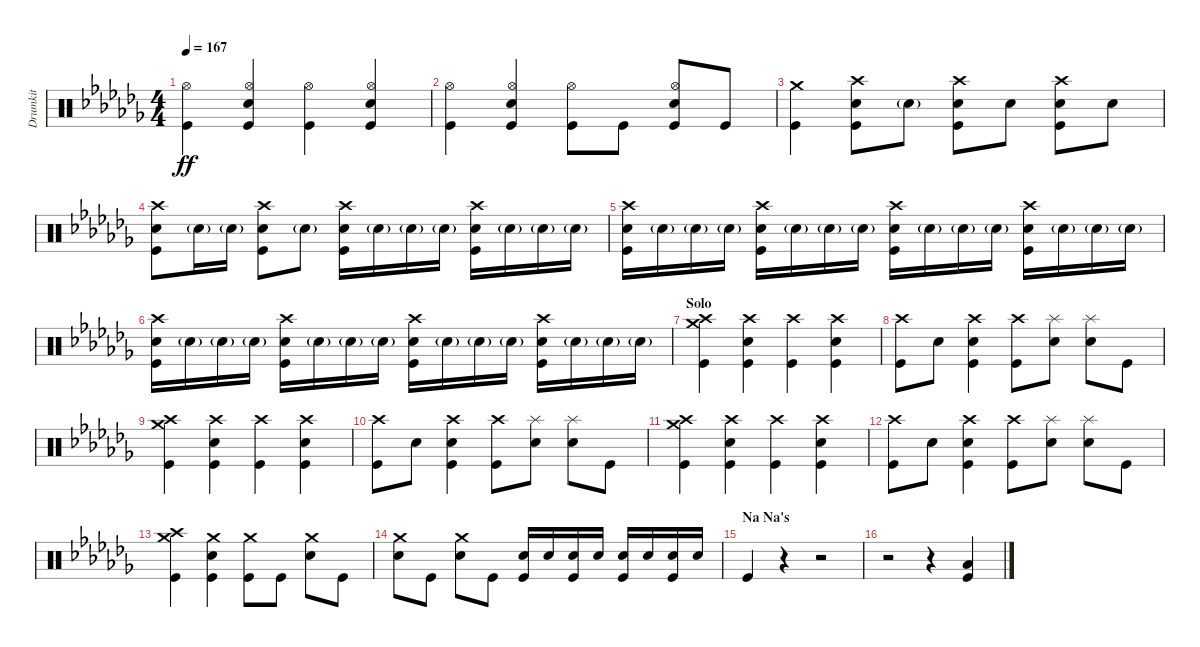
\track ("Drumkit" "Drumkit") {instrument percussion}
\staff {score}
\articulation defaults
\ts (4 4)
\tempo 167
\clef neutral
\ks abminor
("Kick (hit)" "Hi-Hat (open)").4{dy ff} ("Snare (hit) 2" "Hi-Hat (open)" "Kick (hit)").4 ("Kick (hit)" "Hi-Hat (open)").4 ("Snare (hit) 2" "Hi-Hat (open)" "Kick (hit)").4 |
("Kick (hit)" "Hi-Hat (open)").4 ("Snare (hit) 2" "Hi-Hat (open)" "Kick (hit)").4 ("Kick (hit)" "Hi-Hat (open)").8 "Kick (hit)".8 ("Snare (hit) 2" "Hi-Hat (open)" "Kick (hit)").8 "Kick (hit)".8 |
("Kick (hit)" "Crash medium (hit)").4{volume 12} ("Snare (hit) 2" "Kick (hit)" "Crash high (hit)").8 "Snare (hit) 2"{g}.8 ("Snare (hit) 2" "Kick (hit)" "Crash high (hit)").8 "Snare (hit) 2".8 ("Snare (hit) 2" "Kick (hit)" "Crash high (hit)").8 "Snare (hit) 2".8 |
("Snare (hit) 2" "Kick (hit)" "Crash high (hit)").8 "Snare (hit) 2"{g}.16 "Snare (hit) 2"{g}.16 ("Snare (hit) 2" "Kick (hit)" "Crash high (hit)").8 "Snare (hit) 2"{g}.8 ("Snare (hit) 2" "Kick (hit)" "Crash high (hit)").16 "Snare (hit) 2"{g}.16 "Snare (hit) 2"{g}.16 "Snare (hit) 2"{g}.16 ("Snare (hit) 2" "Kick (hit)" "Crash high (hit)").16 "Snare (hit) 2"{g}.16 "Snare (hit) 2"{g}.16 "Snare (hit) 2"{g}.16 |
("Snare (hit) 2" "Kick (hit)" "Crash high (hit)").16 "Snare (hit) 2"{g}.16 "Snare (hit) 2"{g}.16 "Snare (hit) 2"{g}.16 ("Snare (hit) 2" "Kick (hit)" "Crash high (hit)").16 "Snare (hit) 2"{g}.16 "Snare (hit) 2"{g}.16 "Snare (hit) 2"{g}.16 ("Snare (hit) 2" "Kick (hit)" "Crash high (hit)").16 "Snare (hit) 2"{g}.16 "Snare (hit) 2"{g}.16 "Snare (hit) 2"{g}.16 ("Snare (hit) 2" "Kick (hit)" "Crash high (hit)").16 "Snare (hit) 2"{g}.16 "Snare (hit) 2"{g}.16 "Snare (hit) 2"{g}.16 |
("Snare (hit) 2" "Kick (hit)" "Crash high (hit)").16 "Snare (hit) 2"{g}.16 "Snare (hit) 2"{g}.16 "Snare (hit) 2"{g}.16 ("Snare (hit) 2" "Kick (hit)" "Crash high (hit)").16 "Snare (hit) 2"{g}.16 "Snare (hit) 2"{g}.16 "Snare (hit) 2"{g}.16 ("Snare (hit) 2" "Kick (hit)" "Crash high (hit)").16 "Snare (hit) 2"{g}.16 "Snare (hit) 2"{g}.16 "Snare (hit) 2"{g}.16 ("Snare (hit) 2" "Kick (hit)" "Crash high (hit)").16 "Snare (hit) 2"{g}.16 "Snare (hit) 2"{g}.16 "Snare (hit) 2"{g}.16 |
\section ("" "Solo")
("Crash high (hit)" "Crash medium (hit)" "Kick (hit)").4{volume 16} ("Snare (hit) 2" "Kick (hit)" "Crash high (hit)").4 ("Kick (hit)" "Crash high (hit)").4 ("Snare (hit) 2" "Kick (hit)" "Crash high (hit)").4 |
("Kick (hit)" "Crash high (hit)").8 "Snare (hit) 2".8 ("Snare (hit) 2" "Kick (hit)" "Crash high (hit)").4 ("Kick (hit)" "Crash high (hit)").8 ("Snare (hit) 2" "Splash (hit)").8 ("Snare (hit) 2" "Splash (hit)").8 "Kick (hit)".8 |
("Crash high (hit)" "Crash medium (hit)" "Kick (hit)").4 ("Snare (hit) 2" "Kick (hit)" "Crash high (hit)").4 ("Kick (hit)" "Crash high (hit)").4 ("Snare (hit) 2" "Kick (hit)" "Crash high (hit)").4 |
("Kick (hit)" "Crash high (hit)").8 "Snare (hit) 2".8 ("Snare (hit) 2" "Kick (hit)" "Crash high (hit)").4 ("Kick (hit)" "Crash high (hit)").8 ("Snare (hit) 2" "Splash (hit)").8 ("Snare (hit) 2" "Splash (hit)").8 "Kick (hit)".8 |
("Crash high (hit)" "Crash medium (hit)" "Kick (hit)").4 ("Snare (hit) 2" "Kick (hit)" "Crash high (hit)").4 ("Kick (hit)" "Crash high (hit)").4 ("Snare (hit) 2" "Kick (hit)" "Crash high (hit)").4 |
("Kick (hit)" "Crash high (hit)").8 "Snare (hit) 2".8 ("Snare (hit) 2" "Kick (hit)" "Crash high (hit)").4 ("Kick (hit)" "Crash high (hit)").8 ("Snare (hit) 2" "Splash (hit)").8 ("Snare (hit) 2" "Splash (hit)").8 "Kick (hit)".8 |
("Kick (hit)" "Crash medium (hit)" "Crash high (hit)").4 ("Kick (hit)" "Snare (hit) 2" "Crash medium (hit)").4 ("Kick (hit)" "Crash medium (hit)").8 "Kick (hit)".8 ("Snare (hit) 2" "Crash medium (hit)").8 "Kick (hit)".8 |
("Snare (hit) 2" "Crash medium (hit)").8 "Kick (hit)".8 ("Snare (hit) 2" "Crash medium (hit)").8 "Kick (hit)".8 ("Snare (hit) 2" "Kick (hit)").16 "Snare (hit) 2".16 ("Snare (hit) 2" "Kick (hit)").16 "Snare (hit) 2".16 ("Snare (hit) 2" "Kick (hit)").16 "Snare (hit) 2".16 ("Snare (hit) 2" "Kick (hit)").16 "Snare (hit) 2".16 |
\section ("" "Na Na's")
"Kick (hit)".4 r.4 r.2 |
r.2 r.4 ("Kick (hit)" "Low Floor Tom (hit)").4
